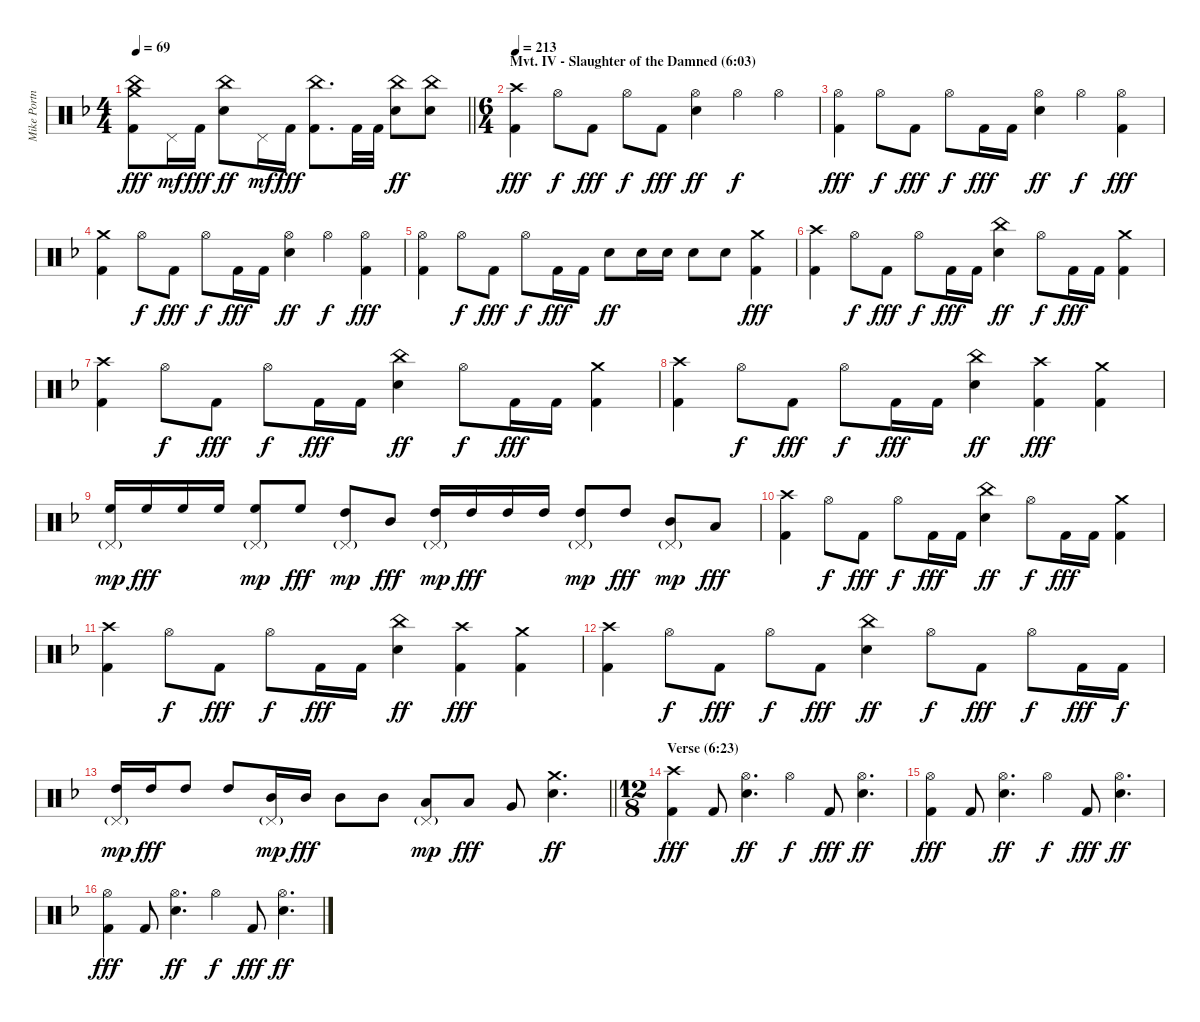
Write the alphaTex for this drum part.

\track ("Mike Portnoy Drums" "Mike Portn") {instrument percussion}
\staff {score}
\articulation defaults
\ts (4 4)
\tempo 69
\clef neutral
\barLineRight lightlight
\ks dminor
("China (hit)" "Crash medium (hit)" "Kick (hit) 2").8{dy fff} "Pedal Hi-Hat (hit)".16{dy mf} "Kick (hit) 2".16{dy fff} ("China (hit)" "Electric Snare (hit)").8{dy ff} "Pedal Hi-Hat (hit)".16{dy mf} "Kick (hit) 2".16{dy fff} ("China (hit)" "Kick (hit) 2").8{d} "Kick (hit) 2".32 "Kick (hit) 2".32 ("China (hit)" "Electric Snare (hit)").8{dy ff} ("China (hit)" "Electric Snare (hit)").8 |
\ts (6 4)
\section ("" "Mvt. IV - Slaughter of the Damned (6:03)")
\tempo 213
("Crash high (hit)" "Kick (hit) 2").4{dy fff} "Hi-Hat (open)".8{dy f} "Kick (hit) 2".8{dy fff} "Hi-Hat (open)".8{dy f} "Kick (hit) 2".8{dy fff} ("Hi-Hat (open)" "Electric Snare (hit)").4{dy ff} "Hi-Hat (open)".4{dy f} "Hi-Hat (open)".4 |
("Hi-Hat (open)" "Kick (hit) 2").4{dy fff} "Hi-Hat (open)".8{dy f} "Kick (hit) 2".8{dy fff} "Hi-Hat (open)".8{dy f} "Kick (hit) 2".16{dy fff} "Kick (hit) 2".16 ("Hi-Hat (open)" "Electric Snare (hit)").4{dy ff} "Hi-Hat (open)".4{dy f} ("Hi-Hat (open)" "Kick (hit) 2").4{dy fff} |
("Crash medium (hit)" "Kick (hit) 2").4 "Hi-Hat (open)".8{dy f} "Kick (hit) 2".8{dy fff} "Hi-Hat (open)".8{dy f} "Kick (hit) 2".16{dy fff} "Kick (hit) 2".16 ("Hi-Hat (open)" "Electric Snare (hit)").4{dy ff} "Hi-Hat (open)".4{dy f} ("Hi-Hat (open)" "Kick (hit) 2").4{dy fff} |
("Hi-Hat (open)" "Kick (hit) 2").4 "Hi-Hat (open)".8{dy f} "Kick (hit) 2".8{dy fff} "Hi-Hat (open)".8{dy f} "Kick (hit) 2".16{dy fff} "Kick (hit) 2".16 "Electric Snare (hit)".8{dy ff} "Electric Snare (hit)".16 "Electric Snare (hit)".16 "Electric Snare (hit)".8 "Electric Snare (hit)".8 ("Crash medium (hit)" "Kick (hit) 2").4{dy fff} |
("Crash high (hit)" "Kick (hit) 2").4 "Hi-Hat (open)".8{dy f} "Kick (hit) 2".8{dy fff} "Hi-Hat (open)".8{dy f} "Kick (hit) 2".16{dy fff} "Kick (hit) 2".16 ("China (hit)" "Electric Snare (hit)").4{dy ff} "Hi-Hat (open)".8{dy f} "Kick (hit) 2".16{dy fff} "Kick (hit) 2".16 ("Crash medium (hit)" "Kick (hit) 2").4 |
("Crash high (hit)" "Kick (hit) 2").4 "Hi-Hat (open)".8{dy f} "Kick (hit) 2".8{dy fff} "Hi-Hat (open)".8{dy f} "Kick (hit) 2".16{dy fff} "Kick (hit) 2".16 ("China (hit)" "Electric Snare (hit)").4{dy ff} "Hi-Hat (open)".8{dy f} "Kick (hit) 2".16{dy fff} "Kick (hit) 2".16 ("Crash medium (hit)" "Kick (hit) 2").4 |
("Crash high (hit)" "Kick (hit) 2").4 "Hi-Hat (open)".8{dy f} "Kick (hit) 2".8{dy fff} "Hi-Hat (open)".8{dy f} "Kick (hit) 2".16{dy fff} "Kick (hit) 2".16 ("China (hit)" "Electric Snare (hit)").4{dy ff} ("Crash high (hit)" "Kick (hit) 2").4{dy fff} ("Crash medium (hit)" "Kick (hit) 2").4 |
("High Floor Tom (hit)" "Pedal Hi-Hat (hit)"{g}).16{dy mp} "High Floor Tom (hit)".16{dy fff} "High Floor Tom (hit)".16 "High Floor Tom (hit)".16 ("High Floor Tom (hit)" "Pedal Hi-Hat (hit)"{g}).8{dy mp} "High Floor Tom (hit)".8{dy fff} ("High Tom (hit)" "Pedal Hi-Hat (hit)"{g}).8{dy mp} "Mid Tom (hit)".8{dy fff} ("High Tom (hit)" "Pedal Hi-Hat (hit)"{g}).16{dy mp} "High Tom (hit)".16{dy fff} "High Tom (hit)".16 "High Tom (hit)".16 ("High Tom (hit)" "Pedal Hi-Hat (hit)"{g}).8{dy mp} "High Tom (hit)".8{dy fff} ("Mid Tom (hit)" "Pedal Hi-Hat (hit)"{g}).8{dy mp} "Low Tom (hit)".8{dy fff} |
("Crash high (hit)" "Kick (hit) 2").4 "Hi-Hat (open)".8{dy f} "Kick (hit) 2".8{dy fff} "Hi-Hat (open)".8{dy f} "Kick (hit) 2".16{dy fff} "Kick (hit) 2".16 ("China (hit)" "Electric Snare (hit)").4{dy ff} "Hi-Hat (open)".8{dy f} "Kick (hit) 2".16{dy fff} "Kick (hit) 2".16 ("Crash medium (hit)" "Kick (hit) 2").4 |
("Crash high (hit)" "Kick (hit) 2").4 "Hi-Hat (open)".8{dy f} "Kick (hit) 2".8{dy fff} "Hi-Hat (open)".8{dy f} "Kick (hit) 2".16{dy fff} "Kick (hit) 2".16 ("China (hit)" "Electric Snare (hit)").4{dy ff} ("Crash high (hit)" "Kick (hit) 2").4{dy fff} ("Crash medium (hit)" "Kick (hit) 2").4 |
("Crash high (hit)" "Kick (hit) 2").4 "Hi-Hat (open)".8{dy f} "Kick (hit) 2".8{dy fff} "Hi-Hat (open)".8{dy f} "Kick (hit) 2".8{dy fff} ("China (hit)" "Electric Snare (hit)").4{dy ff} "Hi-Hat (open)".8{dy f} "Kick (hit) 2".8{dy fff} "Hi-Hat (open)".8{dy f} "Kick (hit) 2".16{dy fff} "Kick (hit) 2".16{dy f} |
\barLineRight lightlight
("High Tom (hit)" "Pedal Hi-Hat (hit)"{g}).16{dy mp} "High Tom (hit)".16{dy fff} "High Tom (hit)".8 "High Tom (hit)".8 ("Mid Tom (hit)" "Pedal Hi-Hat (hit)"{g}).16{dy mp} "Mid Tom (hit)".16{dy fff} "Mid Tom (hit)".8 "Mid Tom (hit)".8 ("Low Tom (hit)" "Pedal Hi-Hat (hit)"{g}).8{dy mp} "Low Tom (hit)".8{dy fff} "Very Low Tom (hit)".8 ("Crash medium (hit)" "Electric Snare (hit)").4{d dy ff} |
\ts (12 8)
\section ("" "Verse (6:23)")
("Crash high (hit)" "Kick (hit) 2").4{dy fff} "Kick (hit) 2".8 ("Hi-Hat (open)" "Electric Snare (hit)").4{d dy ff} "Hi-Hat (open)".4{dy f} "Kick (hit) 2".8{dy fff} ("Hi-Hat (open)" "Electric Snare (hit)").4{d dy ff} |
("Hi-Hat (open)" "Kick (hit) 2").4{dy fff} "Kick (hit) 2".8 ("Hi-Hat (open)" "Electric Snare (hit)").4{d dy ff} "Hi-Hat (open)".4{dy f} "Kick (hit) 2".8{dy fff} ("Hi-Hat (open)" "Electric Snare (hit)").4{d dy ff} |
("Hi-Hat (open)" "Kick (hit) 2").4{dy fff} "Kick (hit) 2".8 ("Hi-Hat (open)" "Electric Snare (hit)").4{d dy ff} "Hi-Hat (open)".4{dy f} "Kick (hit) 2".8{dy fff} ("Hi-Hat (open)" "Electric Snare (hit)").4{d dy ff}
